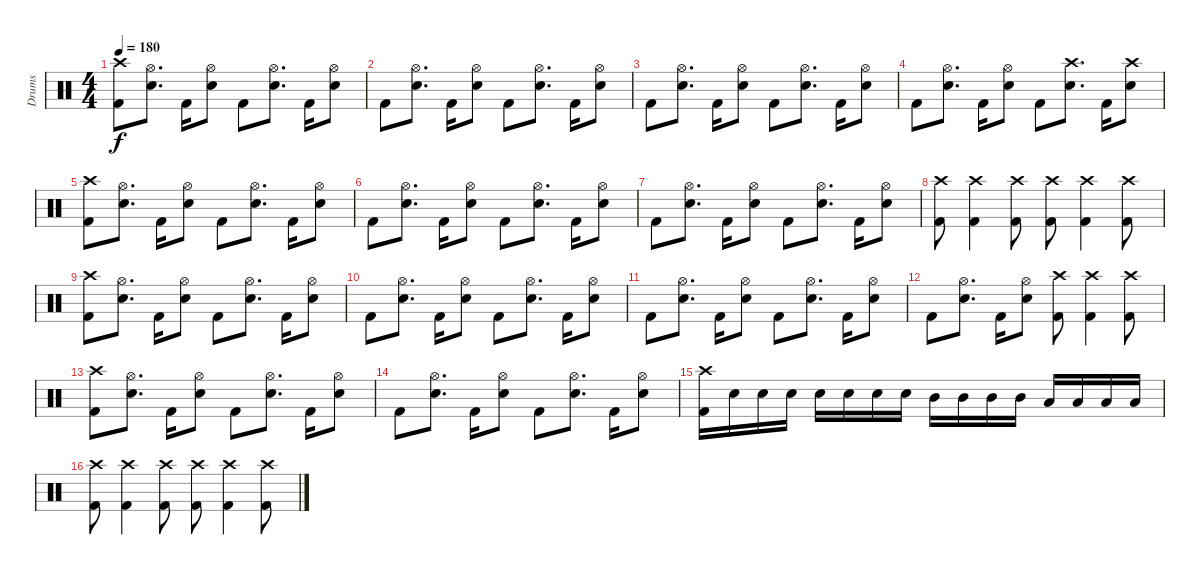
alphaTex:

\track ("Drums" "Drums") {instrument percussion}
\staff {score}
\articulation defaults
\ts (4 4)
\tempo 180
\clef neutral
\ks c
("Crash high (hit)" "Kick (hit) 2").8{dy f volume 16} ("Hi-Hat (open)" "Electric Snare (hit)").8{d} "Kick (hit) 2".16 ("Hi-Hat (open)" "Electric Snare (hit)").8 "Kick (hit) 2".8 ("Hi-Hat (open)" "Electric Snare (hit)").8{d} "Kick (hit) 2".16 ("Hi-Hat (open)" "Electric Snare (hit)").8 |
"Kick (hit) 2".8 ("Hi-Hat (open)" "Electric Snare (hit)").8{d} "Kick (hit) 2".16 ("Hi-Hat (open)" "Electric Snare (hit)").8 "Kick (hit) 2".8 ("Hi-Hat (open)" "Electric Snare (hit)").8{d} "Kick (hit) 2".16 ("Hi-Hat (open)" "Electric Snare (hit)").8 |
"Kick (hit) 2".8 ("Hi-Hat (open)" "Electric Snare (hit)").8{d} "Kick (hit) 2".16 ("Hi-Hat (open)" "Electric Snare (hit)").8 "Kick (hit) 2".8 ("Hi-Hat (open)" "Electric Snare (hit)").8{d} "Kick (hit) 2".16 ("Hi-Hat (open)" "Electric Snare (hit)").8 |
"Kick (hit) 2".8 ("Hi-Hat (open)" "Electric Snare (hit)").8{d} "Kick (hit) 2".16 ("Hi-Hat (open)" "Electric Snare (hit)").8 "Kick (hit) 2".8 ("Crash high (hit)" "Electric Snare (hit)").8{d} "Kick (hit) 2".16 ("Crash high (hit)" "Electric Snare (hit)").8 |
("Crash high (hit)" "Kick (hit) 2").8 ("Hi-Hat (open)" "Electric Snare (hit)").8{d} "Kick (hit) 2".16 ("Hi-Hat (open)" "Electric Snare (hit)").8 "Kick (hit) 2".8 ("Hi-Hat (open)" "Electric Snare (hit)").8{d} "Kick (hit) 2".16 ("Hi-Hat (open)" "Electric Snare (hit)").8 |
"Kick (hit) 2".8 ("Hi-Hat (open)" "Electric Snare (hit)").8{d} "Kick (hit) 2".16 ("Hi-Hat (open)" "Electric Snare (hit)").8 "Kick (hit) 2".8 ("Hi-Hat (open)" "Electric Snare (hit)").8{d} "Kick (hit) 2".16 ("Hi-Hat (open)" "Electric Snare (hit)").8 |
"Kick (hit) 2".8 ("Hi-Hat (open)" "Electric Snare (hit)").8{d} "Kick (hit) 2".16 ("Hi-Hat (open)" "Electric Snare (hit)").8 "Kick (hit) 2".8 ("Hi-Hat (open)" "Electric Snare (hit)").8{d} "Kick (hit) 2".16 ("Hi-Hat (open)" "Electric Snare (hit)").8 |
("Crash high (hit)" "Kick (hit) 2").8 ("Crash high (hit)" "Kick (hit) 2").4 ("Crash high (hit)" "Kick (hit) 2").8 ("Crash high (hit)" "Kick (hit) 2").8 ("Crash high (hit)" "Kick (hit) 2").4 ("Crash high (hit)" "Kick (hit) 2").8 |
("Crash high (hit)" "Kick (hit) 2").8 ("Hi-Hat (open)" "Electric Snare (hit)").8{d} "Kick (hit) 2".16 ("Hi-Hat (open)" "Electric Snare (hit)").8 "Kick (hit) 2".8 ("Hi-Hat (open)" "Electric Snare (hit)").8{d} "Kick (hit) 2".16 ("Hi-Hat (open)" "Electric Snare (hit)").8 |
"Kick (hit) 2".8 ("Hi-Hat (open)" "Electric Snare (hit)").8{d} "Kick (hit) 2".16 ("Hi-Hat (open)" "Electric Snare (hit)").8 "Kick (hit) 2".8 ("Hi-Hat (open)" "Electric Snare (hit)").8{d} "Kick (hit) 2".16 ("Hi-Hat (open)" "Electric Snare (hit)").8 |
"Kick (hit) 2".8 ("Hi-Hat (open)" "Electric Snare (hit)").8{d} "Kick (hit) 2".16 ("Hi-Hat (open)" "Electric Snare (hit)").8 "Kick (hit) 2".8 ("Hi-Hat (open)" "Electric Snare (hit)").8{d} "Kick (hit) 2".16 ("Hi-Hat (open)" "Electric Snare (hit)").8 |
"Kick (hit) 2".8 ("Hi-Hat (open)" "Electric Snare (hit)").8{d} "Kick (hit) 2".16 ("Hi-Hat (open)" "Electric Snare (hit)").8 ("Crash high (hit)" "Kick (hit) 2").8 ("Crash high (hit)" "Kick (hit) 2").4 ("Crash high (hit)" "Kick (hit) 2").8 |
("Crash high (hit)" "Kick (hit) 2").8 ("Hi-Hat (open)" "Electric Snare (hit)").8{d} "Kick (hit) 2".16 ("Hi-Hat (open)" "Electric Snare (hit)").8 "Kick (hit) 2".8 ("Hi-Hat (open)" "Electric Snare (hit)").8{d} "Kick (hit) 2".16 ("Hi-Hat (open)" "Electric Snare (hit)").8 |
"Kick (hit) 2".8 ("Hi-Hat (open)" "Electric Snare (hit)").8{d} "Kick (hit) 2".16 ("Hi-Hat (open)" "Electric Snare (hit)").8 "Kick (hit) 2".8 ("Hi-Hat (open)" "Electric Snare (hit)").8{d} "Kick (hit) 2".16 ("Hi-Hat (open)" "Electric Snare (hit)").8 |
("Crash high (hit)" "Kick (hit) 2").16 "Electric Snare (hit)".16 "Electric Snare (hit)".16 "Electric Snare (hit)".16 "Electric Snare (hit)".16 "Electric Snare (hit)".16 "Electric Snare (hit)".16 "Electric Snare (hit)".16 "Mid Tom (hit)".16 "Mid Tom (hit)".16 "Mid Tom (hit)".16 "Mid Tom (hit)".16 "Low Tom (hit)".16 "Low Tom (hit)".16 "Low Tom (hit)".16 "Low Tom (hit)".16 |
("Crash high (hit)" "Kick (hit) 2").8 ("Crash high (hit)" "Kick (hit) 2").4 ("Crash high (hit)" "Kick (hit) 2").8 ("Crash high (hit)" "Kick (hit) 2").8 ("Crash high (hit)" "Kick (hit) 2").4 ("Crash high (hit)" "Kick (hit) 2").8
